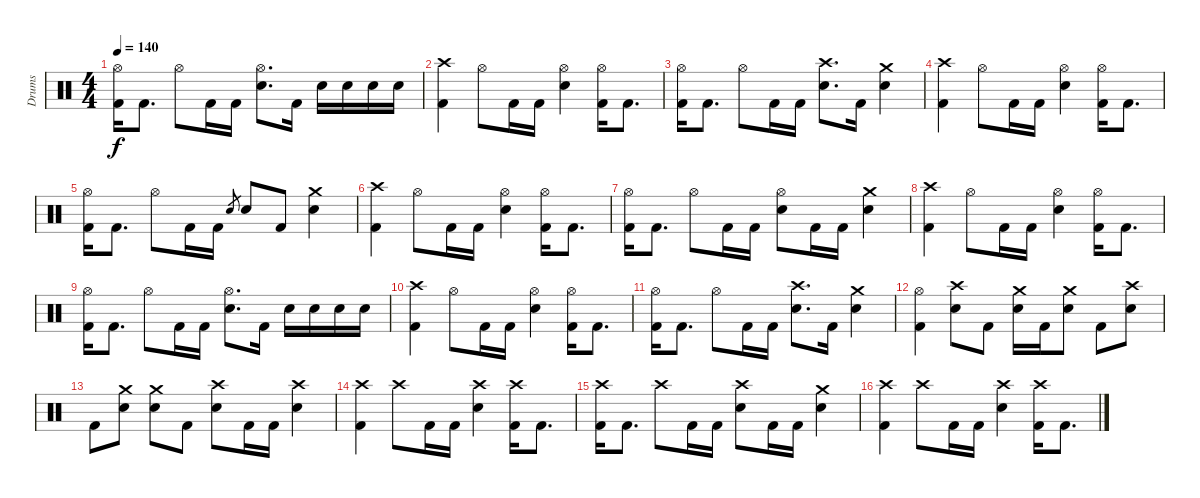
\track ("Drums" "Drums") {instrument percussion}
\staff {score}
\articulation defaults
\ts (4 4)
\tempo 140
\clef neutral
\ks c
("Hi-Hat (open)" "Kick (hit) 2").16{dy f} "Kick (hit) 2".8{d} "Hi-Hat (open)".8 "Kick (hit) 2".16 "Kick (hit) 2".16 ("Hi-Hat (open)" "Electric Snare (hit)").8{d} "Kick (hit) 2".16 "Electric Snare (hit)".16 "Electric Snare (hit)".16 "Electric Snare (hit)".16 "Electric Snare (hit)".16 |
("Crash high (hit)" "Kick (hit) 2").4 "Hi-Hat (open)".8 "Kick (hit) 2".16 "Kick (hit) 2".16 ("Hi-Hat (open)" "Electric Snare (hit)").4 ("Hi-Hat (open)" "Kick (hit) 2").16 "Kick (hit) 2".8{d} |
("Hi-Hat (open)" "Kick (hit) 2").16 "Kick (hit) 2".8{d} "Hi-Hat (open)".8 "Kick (hit) 2".16 "Kick (hit) 2".16 ("Crash high (hit)" "Electric Snare (hit)").8{d} "Kick (hit) 2".16 ("Crash medium (hit)" "Electric Snare (hit)").4 |
("Crash high (hit)" "Kick (hit) 2").4 "Hi-Hat (open)".8 "Kick (hit) 2".16 "Kick (hit) 2".16 ("Hi-Hat (open)" "Electric Snare (hit)").4 ("Hi-Hat (open)" "Kick (hit) 2").16 "Kick (hit) 2".8{d} |
("Hi-Hat (open)" "Kick (hit) 2").16 "Kick (hit) 2".8{d} "Hi-Hat (open)".8 "Kick (hit) 2".16 "Kick (hit) 2".16 "Electric Snare (hit)".8{gr} "Electric Snare (hit)".8 "Kick (hit) 2".8 ("Crash medium (hit)" "Electric Snare (hit)").4 |
("Crash high (hit)" "Kick (hit) 2").4 "Hi-Hat (open)".8 "Kick (hit) 2".16 "Kick (hit) 2".16 ("Hi-Hat (open)" "Electric Snare (hit)").4 ("Hi-Hat (open)" "Kick (hit) 2").16 "Kick (hit) 2".8{d} |
("Hi-Hat (open)" "Kick (hit) 2").16 "Kick (hit) 2".8{d} "Hi-Hat (open)".8 "Kick (hit) 2".16 "Kick (hit) 2".16 ("Hi-Hat (open)" "Electric Snare (hit)").8 "Kick (hit) 2".16 "Kick (hit) 2".16 ("Crash medium (hit)" "Electric Snare (hit)").4 |
("Crash high (hit)" "Kick (hit) 2").4 "Hi-Hat (open)".8 "Kick (hit) 2".16 "Kick (hit) 2".16 ("Hi-Hat (open)" "Electric Snare (hit)").4 ("Hi-Hat (open)" "Kick (hit) 2").16 "Kick (hit) 2".8{d} |
("Hi-Hat (open)" "Kick (hit) 2").16 "Kick (hit) 2".8{d} "Hi-Hat (open)".8 "Kick (hit) 2".16 "Kick (hit) 2".16 ("Hi-Hat (open)" "Electric Snare (hit)").8{d} "Kick (hit) 2".16 "Electric Snare (hit)".16 "Electric Snare (hit)".16 "Electric Snare (hit)".16 "Electric Snare (hit)".16 |
("Crash high (hit)" "Kick (hit) 2").4 "Hi-Hat (open)".8 "Kick (hit) 2".16 "Kick (hit) 2".16 ("Hi-Hat (open)" "Electric Snare (hit)").4 ("Hi-Hat (open)" "Kick (hit) 2").16 "Kick (hit) 2".8{d} |
("Hi-Hat (open)" "Kick (hit) 2").16 "Kick (hit) 2".8{d} "Hi-Hat (open)".8 "Kick (hit) 2".16 "Kick (hit) 2".16 ("Crash high (hit)" "Electric Snare (hit)").8{d} "Kick (hit) 2".16 ("Crash medium (hit)" "Electric Snare (hit)").4 |
("Hi-Hat (open)" "Kick (hit) 2").4 ("Crash high (hit)" "Electric Snare (hit)").8 "Kick (hit) 2".8 ("Crash medium (hit)" "Electric Snare (hit)").16 "Kick (hit) 2".16 ("Crash medium (hit)" "Electric Snare (hit)").8 "Kick (hit) 2".8 ("Crash high (hit)" "Electric Snare (hit)").8 |
"Kick (hit) 2".8 ("Crash medium (hit)" "Electric Snare (hit)").8 ("Crash medium (hit)" "Electric Snare (hit)").8 "Kick (hit) 2".8 ("Crash high (hit)" "Electric Snare (hit)").8 "Kick (hit) 2".16 "Kick (hit) 2".16 ("Crash high (hit)" "Electric Snare (hit)").4 |
("Crash high (hit)" "Kick (hit) 2").4 "Crash high (hit)".8 "Kick (hit) 2".16 "Kick (hit) 2".16 ("Crash high (hit)" "Electric Snare (hit)").4 ("Crash high (hit)" "Kick (hit) 2").16 "Kick (hit) 2".8{d} |
("Crash high (hit)" "Kick (hit) 2").16 "Kick (hit) 2".8{d} "Crash high (hit)".8 "Kick (hit) 2".16 "Kick (hit) 2".16 ("Crash high (hit)" "Electric Snare (hit)").8 "Kick (hit) 2".16 "Kick (hit) 2".16 ("Crash medium (hit)" "Electric Snare (hit)").4 |
("Crash high (hit)" "Kick (hit) 2").4 "Crash high (hit)".8 "Kick (hit) 2".16 "Kick (hit) 2".16 ("Crash high (hit)" "Electric Snare (hit)").4 ("Crash high (hit)" "Kick (hit) 2").16 "Kick (hit) 2".8{d}
